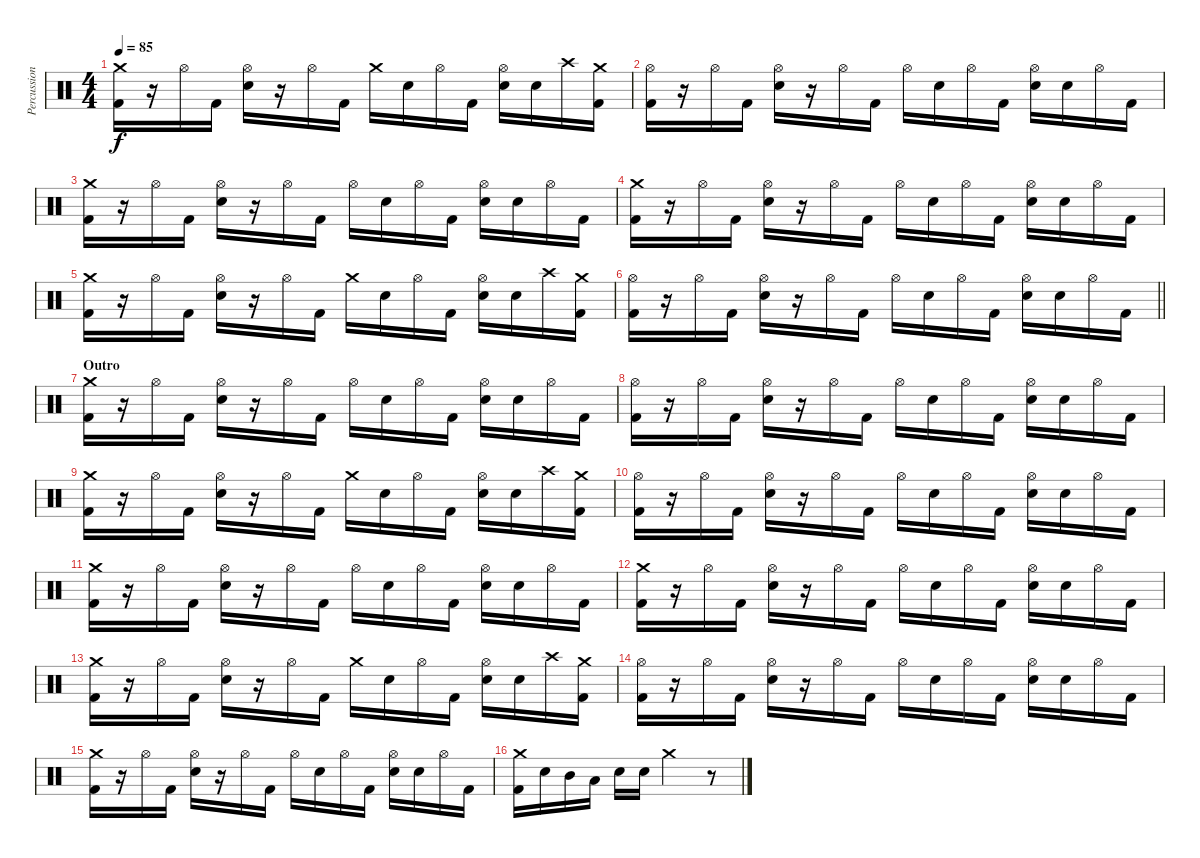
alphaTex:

\track ("Percussion" "Percussion") {instrument percussion}
\staff {score}
\articulation defaults
\ts (4 4)
\tempo 85
\clef neutral
\ks c
("Crash medium (hit)" "Kick (hit) 2").16{dy f} r.16 "Hi-Hat (open)".16 "Kick (hit) 2".16 ("Hi-Hat (open)" "Electric Snare (hit)").16 r.16 "Hi-Hat (open)".16 "Kick (hit) 2".16 "Crash medium (hit)".16 "Electric Snare (hit)".16 "Hi-Hat (open)".16 "Kick (hit) 2".16 ("Hi-Hat (open)" "Electric Snare (hit)").16 "Electric Snare (hit)".16 "Crash high (hit)".16 ("Crash medium (hit)" "Kick (hit) 2").16 |
("Hi-Hat (open)" "Kick (hit) 2").16 r.16 "Hi-Hat (open)".16 "Kick (hit) 2".16 ("Hi-Hat (open)" "Electric Snare (hit)").16 r.16 "Hi-Hat (open)".16 "Kick (hit) 2".16 "Hi-Hat (open)".16 "Electric Snare (hit)".16 "Hi-Hat (open)".16 "Kick (hit) 2".16 ("Hi-Hat (open)" "Electric Snare (hit)").16 "Electric Snare (hit)".16 "Hi-Hat (open)".16 "Kick (hit) 2".16 |
("Crash medium (hit)" "Kick (hit) 2").16 r.16 "Hi-Hat (open)".16 "Kick (hit) 2".16 ("Hi-Hat (open)" "Electric Snare (hit)").16 r.16 "Hi-Hat (open)".16 "Kick (hit) 2".16 "Hi-Hat (open)".16 "Electric Snare (hit)".16 "Hi-Hat (open)".16 "Kick (hit) 2".16 ("Hi-Hat (open)" "Electric Snare (hit)").16 "Electric Snare (hit)".16 "Hi-Hat (open)".16 "Kick (hit) 2".16 |
("Crash medium (hit)" "Kick (hit) 2").16 r.16 "Hi-Hat (open)".16 "Kick (hit) 2".16 ("Hi-Hat (open)" "Electric Snare (hit)").16 r.16 "Hi-Hat (open)".16 "Kick (hit) 2".16 "Hi-Hat (open)".16 "Electric Snare (hit)".16 "Hi-Hat (open)".16 "Kick (hit) 2".16 ("Hi-Hat (open)" "Electric Snare (hit)").16 "Electric Snare (hit)".16 "Hi-Hat (open)".16 "Kick (hit) 2".16 |
("Crash medium (hit)" "Kick (hit) 2").16 r.16 "Hi-Hat (open)".16 "Kick (hit) 2".16 ("Hi-Hat (open)" "Electric Snare (hit)").16 r.16 "Hi-Hat (open)".16 "Kick (hit) 2".16 "Crash medium (hit)".16 "Electric Snare (hit)".16 "Hi-Hat (open)".16 "Kick (hit) 2".16 ("Hi-Hat (open)" "Electric Snare (hit)").16 "Electric Snare (hit)".16 "Crash high (hit)".16 ("Crash medium (hit)" "Kick (hit) 2").16 |
\barLineRight lightlight
("Hi-Hat (open)" "Kick (hit) 2").16 r.16 "Hi-Hat (open)".16 "Kick (hit) 2".16 ("Hi-Hat (open)" "Electric Snare (hit)").16 r.16 "Hi-Hat (open)".16 "Kick (hit) 2".16 "Hi-Hat (open)".16 "Electric Snare (hit)".16 "Hi-Hat (open)".16 "Kick (hit) 2".16 ("Hi-Hat (open)" "Electric Snare (hit)").16 "Electric Snare (hit)".16 "Hi-Hat (open)".16 "Kick (hit) 2".16 |
\section ("" "Outro")
("Crash medium (hit)" "Kick (hit) 2").16 r.16 "Hi-Hat (open)".16 "Kick (hit) 2".16 ("Hi-Hat (open)" "Electric Snare (hit)").16 r.16 "Hi-Hat (open)".16 "Kick (hit) 2".16 "Hi-Hat (open)".16 "Electric Snare (hit)".16 "Hi-Hat (open)".16 "Kick (hit) 2".16 ("Hi-Hat (open)" "Electric Snare (hit)").16 "Electric Snare (hit)".16 "Hi-Hat (open)".16 "Kick (hit) 2".16 |
("Hi-Hat (open)" "Kick (hit) 2").16 r.16 "Hi-Hat (open)".16 "Kick (hit) 2".16 ("Hi-Hat (open)" "Electric Snare (hit)").16 r.16 "Hi-Hat (open)".16 "Kick (hit) 2".16 "Hi-Hat (open)".16 "Electric Snare (hit)".16 "Hi-Hat (open)".16 "Kick (hit) 2".16 ("Hi-Hat (open)" "Electric Snare (hit)").16 "Electric Snare (hit)".16 "Hi-Hat (open)".16 "Kick (hit) 2".16 |
("Crash medium (hit)" "Kick (hit) 2").16 r.16 "Hi-Hat (open)".16 "Kick (hit) 2".16 ("Hi-Hat (open)" "Electric Snare (hit)").16 r.16 "Hi-Hat (open)".16 "Kick (hit) 2".16 "Crash medium (hit)".16 "Electric Snare (hit)".16 "Hi-Hat (open)".16 "Kick (hit) 2".16 ("Hi-Hat (open)" "Electric Snare (hit)").16 "Electric Snare (hit)".16 "Crash high (hit)".16 ("Crash medium (hit)" "Kick (hit) 2").16 |
("Hi-Hat (open)" "Kick (hit) 2").16 r.16 "Hi-Hat (open)".16 "Kick (hit) 2".16 ("Hi-Hat (open)" "Electric Snare (hit)").16 r.16 "Hi-Hat (open)".16 "Kick (hit) 2".16 "Hi-Hat (open)".16 "Electric Snare (hit)".16 "Hi-Hat (open)".16 "Kick (hit) 2".16 ("Hi-Hat (open)" "Electric Snare (hit)").16 "Electric Snare (hit)".16 "Hi-Hat (open)".16 "Kick (hit) 2".16 |
("Crash medium (hit)" "Kick (hit) 2").16 r.16 "Hi-Hat (open)".16 "Kick (hit) 2".16 ("Hi-Hat (open)" "Electric Snare (hit)").16 r.16 "Hi-Hat (open)".16 "Kick (hit) 2".16 "Hi-Hat (open)".16 "Electric Snare (hit)".16 "Hi-Hat (open)".16 "Kick (hit) 2".16 ("Hi-Hat (open)" "Electric Snare (hit)").16 "Electric Snare (hit)".16 "Hi-Hat (open)".16 "Kick (hit) 2".16 |
("Crash medium (hit)" "Kick (hit) 2").16 r.16 "Hi-Hat (open)".16 "Kick (hit) 2".16 ("Hi-Hat (open)" "Electric Snare (hit)").16 r.16 "Hi-Hat (open)".16 "Kick (hit) 2".16 "Hi-Hat (open)".16 "Electric Snare (hit)".16 "Hi-Hat (open)".16 "Kick (hit) 2".16 ("Hi-Hat (open)" "Electric Snare (hit)").16 "Electric Snare (hit)".16 "Hi-Hat (open)".16 "Kick (hit) 2".16 |
("Crash medium (hit)" "Kick (hit) 2").16 r.16 "Hi-Hat (open)".16 "Kick (hit) 2".16 ("Hi-Hat (open)" "Electric Snare (hit)").16 r.16 "Hi-Hat (open)".16 "Kick (hit) 2".16 "Crash medium (hit)".16 "Electric Snare (hit)".16 "Hi-Hat (open)".16 "Kick (hit) 2".16 ("Hi-Hat (open)" "Electric Snare (hit)").16 "Electric Snare (hit)".16 "Crash high (hit)".16 ("Crash medium (hit)" "Kick (hit) 2").16 |
("Hi-Hat (open)" "Kick (hit) 2").16 r.16 "Hi-Hat (open)".16 "Kick (hit) 2".16 ("Hi-Hat (open)" "Electric Snare (hit)").16 r.16 "Hi-Hat (open)".16 "Kick (hit) 2".16 "Hi-Hat (open)".16 "Electric Snare (hit)".16 "Hi-Hat (open)".16 "Kick (hit) 2".16 ("Hi-Hat (open)" "Electric Snare (hit)").16 "Electric Snare (hit)".16 "Hi-Hat (open)".16 "Kick (hit) 2".16 |
("Crash medium (hit)" "Kick (hit) 2").16 r.16 "Hi-Hat (open)".16 "Kick (hit) 2".16 ("Hi-Hat (open)" "Electric Snare (hit)").16 r.16 "Hi-Hat (open)".16 "Kick (hit) 2".16 "Hi-Hat (open)".16 "Electric Snare (hit)".16 "Hi-Hat (open)".16 "Kick (hit) 2".16 ("Hi-Hat (open)" "Electric Snare (hit)").16 "Electric Snare (hit)".16 "Hi-Hat (open)".16 "Kick (hit) 2".16 |
("Crash medium (hit)" "Kick (hit) 2").16 "Electric Snare (hit)".16 "Mid Tom (hit)".16 "Low Tom (hit)".16 "Electric Snare (hit)".16 "Electric Snare (hit)".16 "Crash medium (hit)".2 r.8
